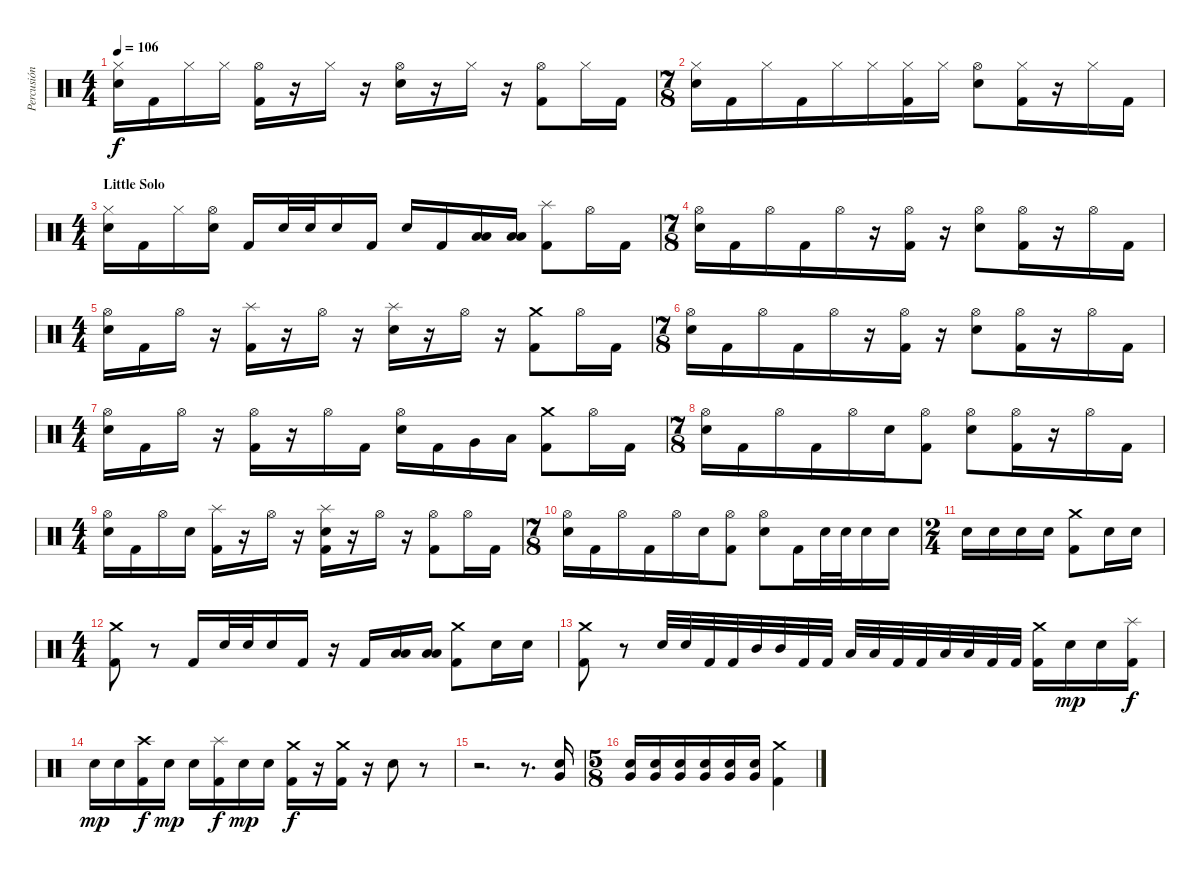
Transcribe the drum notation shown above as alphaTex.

\track ("Percusión" "Percusión") {instrument percussion}
\staff {score}
\articulation defaults
\ts (4 4)
\tempo 106
\clef neutral
\ks c
("Hi-Hat (closed)" "Electric Snare (hit)").16{dy f} "Kick (hit) 2".16 "Hi-Hat (closed)".16 "Hi-Hat (closed)".16 ("Hi-Hat (open)" "Kick (hit) 2").16 r.16 "Hi-Hat (closed)".16 r.16 ("Hi-Hat (open)" "Electric Snare (hit)").16 r.16 "Hi-Hat (closed)".16 r.16 ("Hi-Hat (open)" "Kick (hit) 2").8 "Hi-Hat (closed)".16 "Kick (hit) 2".16 |
\ts (7 8)
("Hi-Hat (closed)" "Electric Snare (hit)").16 "Kick (hit) 2".16 "Hi-Hat (closed)".16 "Kick (hit) 2".16 "Hi-Hat (closed)".16 "Hi-Hat (closed)".16 ("Hi-Hat (closed)" "Kick (hit) 2").16 "Hi-Hat (closed)".16 ("Hi-Hat (open)" "Electric Snare (hit)").8 ("Hi-Hat (closed)" "Kick (hit) 2").16 r.16 "Hi-Hat (closed)".16 "Kick (hit) 2".16 |
\ts (4 4)
\section ("" "Little Solo")
("Hi-Hat (closed)" "Electric Snare (hit)").16 "Kick (hit) 2".16 "Hi-Hat (closed)".16 ("Hi-Hat (open)" "Electric Snare (hit)").16 "Kick (hit) 2".16 "Electric Snare (hit)".32 "Electric Snare (hit)".32 "Electric Snare (hit)".16 "Kick (hit) 2".16 "Electric Snare (hit)".16 "Kick (hit) 2".16 ("Low Tom (hit)" "Low Floor Tom (hit)").16 ("Low Tom (hit)" "Low Floor Tom (hit)").16 ("Splash (hit)" "Kick (hit) 2").8 "Hi-Hat (open)".16 "Kick (hit) 2".16 |
\ts (7 8)
("Hi-Hat (open)" "Electric Snare (hit)").16 "Kick (hit) 2".16 "Hi-Hat (open)".16 "Kick (hit) 2".16 "Hi-Hat (open)".16 r.16 ("Hi-Hat (open)" "Kick (hit) 2").16 r.16 ("Hi-Hat (open)" "Electric Snare (hit)").8 ("Hi-Hat (open)" "Kick (hit) 2").16 r.16 "Hi-Hat (open)".16 "Kick (hit) 2".16 |
\ts (4 4)
("Hi-Hat (open)" "Electric Snare (hit)").16 "Kick (hit) 2".16 "Hi-Hat (open)".16 r.16 ("Splash (hit)" "Kick (hit) 2").16 r.16 "Hi-Hat (open)".16 r.16 ("Splash (hit)" "Electric Snare (hit)").16 r.16 "Hi-Hat (open)".16 r.16 ("Crash medium (hit)" "Kick (hit) 2").8 "Hi-Hat (open)".16 "Kick (hit) 2".16 |
\ts (7 8)
("Hi-Hat (open)" "Electric Snare (hit)").16 "Kick (hit) 2".16 "Hi-Hat (open)".16 "Kick (hit) 2".16 "Hi-Hat (open)".16 r.16 ("Hi-Hat (open)" "Kick (hit) 2").16 r.16 ("Hi-Hat (open)" "Electric Snare (hit)").8 ("Hi-Hat (open)" "Kick (hit) 2").16 r.16 "Hi-Hat (open)".16 "Kick (hit) 2".16 |
\ts (4 4)
("Hi-Hat (open)" "Electric Snare (hit)").16 "Kick (hit) 2".16 "Hi-Hat (open)".16 r.16 ("Hi-Hat (open)" "Kick (hit) 2").16 r.16 "Hi-Hat (open)".16 "Kick (hit) 2".16 ("Hi-Hat (open)" "Electric Snare (hit)").16 "Kick (hit) 2".16 "Very Low Tom (hit)".16 "Low Floor Tom (hit)".16 ("Crash medium (hit)" "Kick (hit) 2").8 "Hi-Hat (open)".16 "Kick (hit) 2".16 |
\ts (7 8)
("Hi-Hat (open)" "Electric Snare (hit)").16 "Kick (hit) 2".16 "Hi-Hat (open)".16 "Kick (hit) 2".16 "Hi-Hat (open)".16 "Electric Snare (hit)".16 ("Hi-Hat (open)" "Kick (hit) 2").8 ("Hi-Hat (open)" "Electric Snare (hit)").8 ("Hi-Hat (open)" "Kick (hit) 2").16 r.16 "Hi-Hat (open)".16 "Kick (hit) 2".16 |
\ts (4 4)
("Hi-Hat (open)" "Electric Snare (hit)").16 "Kick (hit) 2".16 "Hi-Hat (open)".16 "Electric Snare (hit)".16 ("Splash (hit)" "Kick (hit) 2").16 r.16 "Hi-Hat (open)".16 r.16 ("Kick (hit) 2" "Splash (hit)" "Electric Snare (hit)").16 r.16 "Hi-Hat (open)".16 r.16 ("Hi-Hat (open)" "Kick (hit) 2").8 "Hi-Hat (open)".16 "Kick (hit) 2".16 |
\ts (7 8)
("Hi-Hat (open)" "Electric Snare (hit)").16 "Kick (hit) 2".16 "Hi-Hat (open)".16 "Kick (hit) 2".16 "Hi-Hat (open)".16 "Electric Snare (hit)".16 ("Hi-Hat (open)" "Kick (hit) 2").8 ("Hi-Hat (open)" "Electric Snare (hit)").8 "Kick (hit) 2".16 "Electric Snare (hit)".32 "Electric Snare (hit)".32 "Electric Snare (hit)".16 "Electric Snare (hit)".16 |
\ts (2 4)
"Electric Snare (hit)".16 "Electric Snare (hit)".16 "Electric Snare (hit)".16 "Electric Snare (hit)".16 ("Crash medium (hit)" "Kick (hit) 2").8 "Electric Snare (hit)".16 "Electric Snare (hit)".16 |
\ts (4 4)
("Crash medium (hit)" "Kick (hit) 2").8 r.8 "Kick (hit) 2".16 "Electric Snare (hit)".32 "Electric Snare (hit)".32 "Electric Snare (hit)".16 "Kick (hit) 2".16 r.16 "Kick (hit) 2".16 ("Low Tom (hit)" "Low Floor Tom (hit)").16 ("Low Tom (hit)" "Low Floor Tom (hit)").16 ("Crash medium (hit)" "Kick (hit) 2").8 "Electric Snare (hit)".16 "Electric Snare (hit)".16 |
("Crash medium (hit)" "Kick (hit) 2").8 r.8 "Electric Snare (hit)".32 "Electric Snare (hit)".32 "Kick (hit) 2".32 "Kick (hit) 2".32 "Mid Tom (hit)".32 "Mid Tom (hit)".32 "Kick (hit) 2".32 "Kick (hit) 2".32 "Low Tom (hit)".32 "Low Tom (hit)".32 "Kick (hit) 2".32 "Kick (hit) 2".32 "Low Tom (hit)".32 "Low Tom (hit)".32 "Kick (hit) 2".32 "Kick (hit) 2".32 ("Crash medium (hit)" "Kick (hit) 2").16 "Electric Snare (hit)".16{dy mp} "Electric Snare (hit)".16 ("Splash (hit)" "Kick (hit) 2").16{dy f} |
"Electric Snare (hit)".16{dy mp} "Electric Snare (hit)".16 ("Crash high (hit)" "Kick (hit) 2").16{dy f} "Electric Snare (hit)".16{dy mp} "Electric Snare (hit)".16 ("Splash (hit)" "Kick (hit) 2").16{dy f} "Electric Snare (hit)".16{dy mp} "Electric Snare (hit)".16 ("Crash medium (hit)" "Kick (hit) 2").16{dy f} r.16 ("Kick (hit) 2" "Crash medium (hit)").16 r.16 "Electric Snare (hit)".8 r.8 |
r.2{d} r.8{d} ("Electric Snare (hit)" "Very Low Tom (hit)").16{volume 1} |
\ts (5 8)
("Electric Snare (hit)" "Very Low Tom (hit)").16{volume 3} ("Very Low Tom (hit)" "Electric Snare (hit)").16{volume 6} ("Very Low Tom (hit)" "Electric Snare (hit)").16{volume 8} ("Very Low Tom (hit)" "Electric Snare (hit)").16{volume 10} ("Very Low Tom (hit)" "Electric Snare (hit)").16{volume 12} ("Very Low Tom (hit)" "Electric Snare (hit)").16{volume 14} ("Crash medium (hit)" "Kick (hit) 2").4{volume 16}
